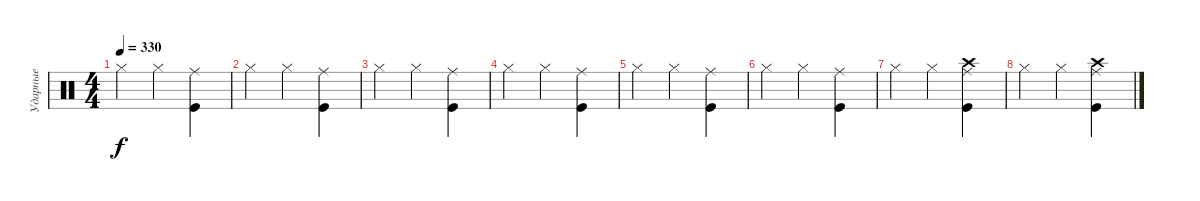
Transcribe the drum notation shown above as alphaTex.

\track ("Ударные" "Ударные") {instrument percussion}
\staff {score}
\articulation defaults
\ts (4 4)
\tempo 330
\clef neutral
\ks c "Hi-Hat (closed)".4{dy f} "Hi-Hat (closed)".4
("Kick (hit)" "Ride (middle)").4 |
"Hi-Hat (closed)".4 "Hi-Hat (closed)".4 ("Kick (hit)" "Ride (middle)").4 |
"Hi-Hat (closed)".4 "Hi-Hat (closed)".4 ("Kick (hit)" "Ride (middle)").4 |
"Hi-Hat (closed)".4 "Hi-Hat (closed)".4 ("Kick (hit)" "Ride (middle)").4 |
"Hi-Hat (closed)".4 "Hi-Hat (closed)".4 ("Kick (hit)" "Ride (middle)").4 |
"Hi-Hat (closed)".4 "Hi-Hat (closed)".4 ("Kick (hit)" "Ride (middle)").4 |
"Hi-Hat (closed)".4 "Hi-Hat (closed)".4 ("Kick (hit)" "Ride (middle)" "Crash high (hit)").4 |
"Hi-Hat (closed)".4 "Hi-Hat (closed)".4 ("Kick (hit)" "Ride (middle)" "Crash high (hit)").4
